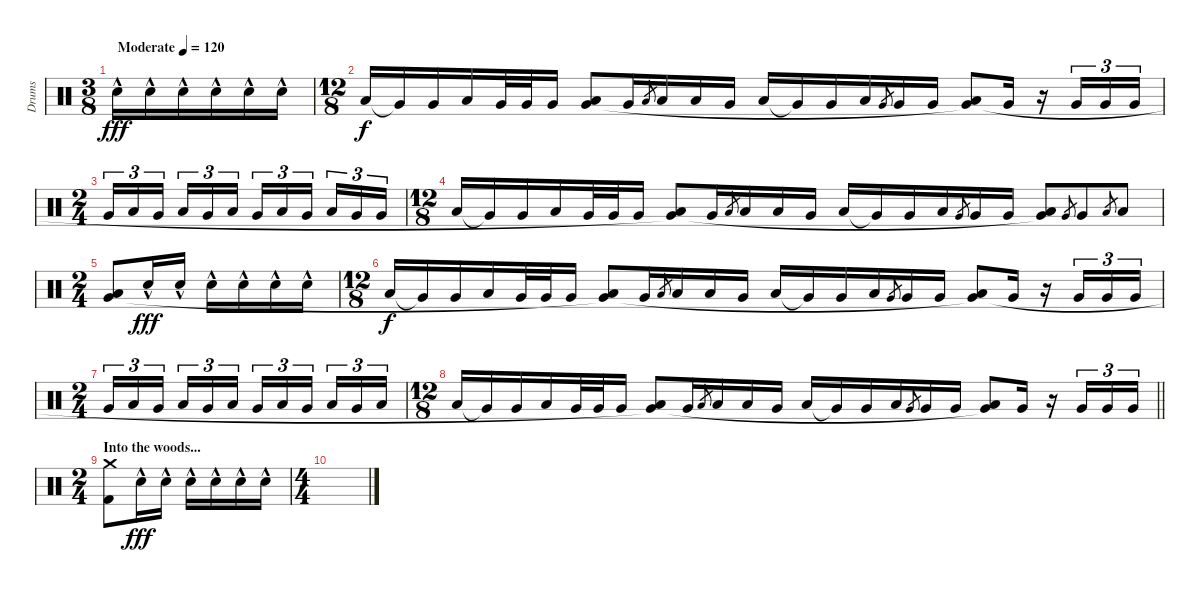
\track ("Drums" "Drums") {instrument percussion}
\staff {score}
\articulation defaults
\ts (3 8)
\tempo (120 "Moderate")
\clef neutral
\ks c "Electric Snare (hit)"{hac}.16{dy fff} "Electric Snare (hit)"{hac}.16 "Electric Snare (hit)"{hac}.16 "Electric Snare (hit)"{hac}.16 "Electric Snare (hit)"{hac}.16 "Electric Snare (hit)"{hac}.16
|
\ts (12 8)
"Low Tom (hit)".16{dy f} "Very Low Tom (hit)"{t}.16 "Very Low Tom (hit)".16 "Low Floor Tom (hit)".16 "Very Low Tom (hit)".32 "Very Low Tom (hit)".32 "Very Low Tom (hit)".16 ("Low Tom (hit)" "Very Low Tom (hit)").8 "Very Low Tom (hit)".16 "Low Floor Tom (hit)".8{gr} "Low Floor Tom (hit)".16 "Low Floor Tom (hit)".16 "Very Low Tom (hit)".16 "Low Tom (hit)".16 "Very Low Tom (hit)"{t}.16 "Very Low Tom (hit)".16 "Low Floor Tom (hit)".16 "Very Low Tom (hit)".8{gr} "Very Low Tom (hit)".16 "Very Low Tom (hit)".16 ("Low Tom (hit)" "Very Low Tom (hit)"{t}).8 "Very Low Tom (hit)".16 r.16 "Very Low Tom (hit)".16{tu (3 2)} "Very Low Tom (hit)".16{tu (3 2)} "Very Low Tom (hit)".16{tu (3 2)} |
\ts (2 4)
"Very Low Tom (hit)".16{tu (3 2)} "Low Floor Tom (hit)".16{tu (3 2)} "Very Low Tom (hit)".16{tu (3 2) beam splitsecondary} "Low Floor Tom (hit)".16{tu (3 2)} "Very Low Tom (hit)".16{tu (3 2)} "Low Floor Tom (hit)".16{tu (3 2)} "Very Low Tom (hit)".16{tu (3 2)} "Low Floor Tom (hit)".16{tu (3 2)} "Very Low Tom (hit)".16{tu (3 2) beam splitsecondary} "Low Floor Tom (hit)".16{tu (3 2)} "Very Low Tom (hit)".16{tu (3 2)} "Very Low Tom (hit)".16{tu (3 2)} |
\ts (12 8)
"Low Tom (hit)".16 "Very Low Tom (hit)"{t}.16 "Very Low Tom (hit)".16 "Low Floor Tom (hit)".16 "Very Low Tom (hit)".32 "Very Low Tom (hit)".32 "Very Low Tom (hit)".16 ("Low Tom (hit)" "Very Low Tom (hit)"{t}).8 "Very Low Tom (hit)".16 "Low Floor Tom (hit)".8{gr} "Low Floor Tom (hit)".16 "Low Floor Tom (hit)".16 "Very Low Tom (hit)".16 "Low Tom (hit)".16 "Very Low Tom (hit)"{t}.16 "Very Low Tom (hit)".16 "Low Floor Tom (hit)".16 "Very Low Tom (hit)".8{gr} "Very Low Tom (hit)".16 "Very Low Tom (hit)".16 ("Low Tom (hit)" "Very Low Tom (hit)"{t}).8 "Very Low Tom (hit)".8{gr} "Very Low Tom (hit)".8 "Low Floor Tom (hit)".8{gr} "Low Floor Tom (hit)".8 |
\ts (2 4)
("Low Tom (hit)" "Very Low Tom (hit)").8 "Electric Snare (hit)"{hac}.16{dy fff} "Electric Snare (hit)"{hac}.16 "Electric Snare (hit)"{hac}.16 "Electric Snare (hit)"{hac}.16 "Electric Snare (hit)"{hac}.16 "Electric Snare (hit)"{hac}.16 |
\ts (12 8)
"Low Tom (hit)".16{dy f} "Very Low Tom (hit)"{t}.16 "Very Low Tom (hit)".16 "Low Floor Tom (hit)".16 "Very Low Tom (hit)".32 "Very Low Tom (hit)".32 "Very Low Tom (hit)".16 ("Low Tom (hit)" "Very Low Tom (hit)"{t}).8 "Very Low Tom (hit)".16 "Low Floor Tom (hit)".8{gr} "Low Floor Tom (hit)".16 "Low Floor Tom (hit)".16 "Very Low Tom (hit)".16 "Low Tom (hit)".16 "Very Low Tom (hit)"{t}.16 "Very Low Tom (hit)".16 "Low Floor Tom (hit)".16 "Very Low Tom (hit)".8{gr} "Very Low Tom (hit)".16 "Very Low Tom (hit)".16 ("Low Tom (hit)" "Very Low Tom (hit)"{t}).8 "Very Low Tom (hit)".16 r.16 "Very Low Tom (hit)".16{tu (3 2)} "Very Low Tom (hit)".16{tu (3 2)} "Very Low Tom (hit)".16{tu (3 2)} |
\ts (2 4)
"Very Low Tom (hit)".16{tu (3 2)} "Low Floor Tom (hit)".16{tu (3 2)} "Very Low Tom (hit)".16{tu (3 2) beam splitsecondary} "Low Floor Tom (hit)".16{tu (3 2)} "Very Low Tom (hit)".16{tu (3 2)} "Low Floor Tom (hit)".16{tu (3 2)} "Very Low Tom (hit)".16{tu (3 2)} "Low Floor Tom (hit)".16{tu (3 2)} "Very Low Tom (hit)".16{tu (3 2) beam splitsecondary} "Low Floor Tom (hit)".16{tu (3 2)} "Very Low Tom (hit)".16{tu (3 2)} "Low Floor Tom (hit)".16{tu (3 2)} |
\ts (12 8)
\barLineRight lightlight "Low Tom (hit)".16 "Very Low Tom (hit)"{t}.16 "Very Low Tom (hit)".16 "Low Floor Tom (hit)".16 "Very Low Tom (hit)".32 "Very Low Tom (hit)".32 "Very Low Tom (hit)".16
("Low Tom (hit)" "Very Low Tom (hit)"{t}).8 "Very Low Tom (hit)".16 "Low Floor Tom (hit)".8{gr} "Low Floor Tom (hit)".16 "Low Floor Tom (hit)".16 "Very Low Tom (hit)".16 "Low Tom (hit)".16 "Very Low Tom (hit)"{t}.16 "Very Low Tom (hit)".16 "Low Floor Tom (hit)".16 "Very Low Tom (hit)".8{gr} "Very Low Tom (hit)".16 "Very Low Tom (hit)".16 ("Low Tom (hit)" "Very Low Tom (hit)"{t}).8 "Very Low Tom (hit)".16 r.16 "Very Low Tom (hit)".16{tu (3 2)} "Very Low Tom (hit)".16{tu (3 2)} "Very Low Tom (hit)".16{tu (3 2)} |
\ts (2 4)
\section ("" "Into the woods...")
("Crash medium (hit)" "Kick (hit) 2").8 "Electric Snare (hit)"{hac}.16{dy fff} "Electric Snare (hit)"{hac}.16 "Electric Snare (hit)"{hac}.16 "Electric Snare (hit)"{hac}.16 "Electric Snare (hit)"{hac}.16 "Electric Snare (hit)"{hac}.16 |
\ts (4 4)
